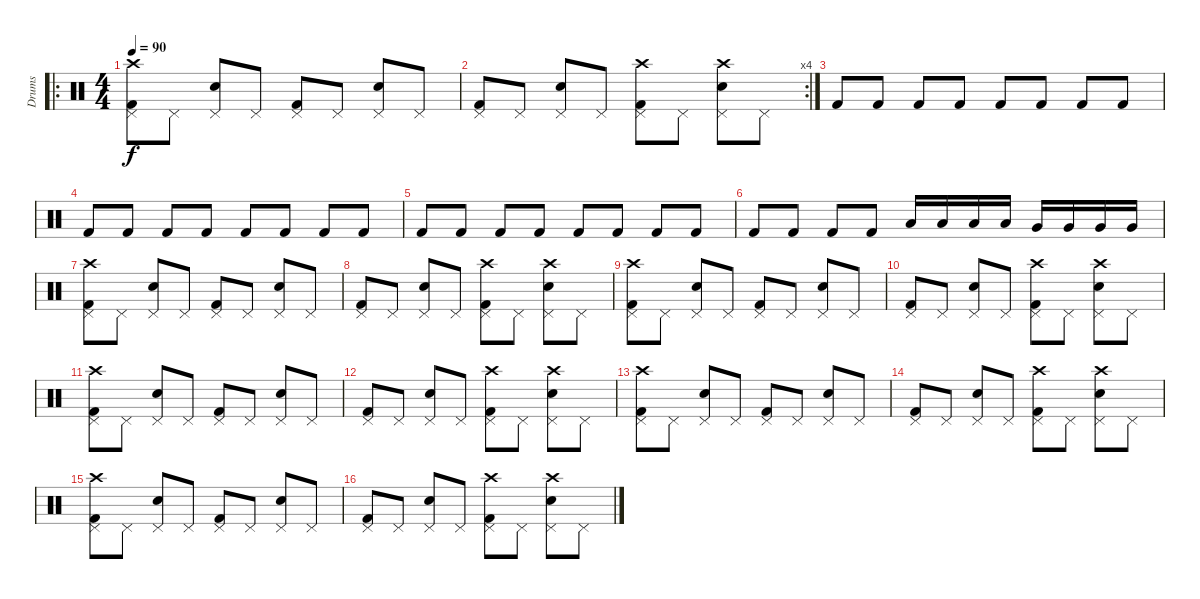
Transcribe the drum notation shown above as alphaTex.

\track ("Drums" "Drums") {instrument percussion}
\staff {score}
\articulation defaults
\ro
\ts (4 4)
\tempo 90
\clef neutral
\ks c
("Crash high (hit)" "Kick (hit) 2" "Pedal Hi-Hat (hit)").8{dy f} "Pedal Hi-Hat (hit)".8 ("Pedal Hi-Hat (hit)" "Snare (hit) 2").8 "Pedal Hi-Hat (hit)".8 ("Pedal Hi-Hat (hit)" "Kick (hit) 2").8 "Pedal Hi-Hat (hit)".8 ("Pedal Hi-Hat (hit)" "Snare (hit) 2").8 "Pedal Hi-Hat (hit)".8 |
\rc 4
("Pedal Hi-Hat (hit)" "Kick (hit) 2").8 "Pedal Hi-Hat (hit)".8 ("Pedal Hi-Hat (hit)" "Snare (hit) 2").8 "Pedal Hi-Hat (hit)".8 ("Pedal Hi-Hat (hit)" "Kick (hit) 2" "Crash high (hit)").8 "Pedal Hi-Hat (hit)".8 ("Pedal Hi-Hat (hit)" "Snare (hit) 2" "Crash high (hit)").8 "Pedal Hi-Hat (hit)".8 |
"Kick (hit) 2".8 "Kick (hit) 2".8 "Kick (hit) 2".8 "Kick (hit) 2".8 "Kick (hit) 2".8 "Kick (hit) 2".8 "Kick (hit) 2".8 "Kick (hit) 2".8 |
"Kick (hit) 2".8 "Kick (hit) 2".8 "Kick (hit) 2".8 "Kick (hit) 2".8 "Kick (hit) 2".8 "Kick (hit) 2".8 "Kick (hit) 2".8 "Kick (hit) 2".8 |
"Kick (hit) 2".8 "Kick (hit) 2".8 "Kick (hit) 2".8 "Kick (hit) 2".8 "Kick (hit) 2".8 "Kick (hit) 2".8 "Kick (hit) 2".8 "Kick (hit) 2".8 |
"Kick (hit) 2".8 "Kick (hit) 2".8 "Kick (hit) 2".8 "Kick (hit) 2".8 "Low Tom (hit)".16 "Low Tom (hit)".16 "Low Tom (hit)".16 "Low Tom (hit)".16 "Very Low Tom (hit)".16 "Very Low Tom (hit)".16 "Very Low Tom (hit)".16 "Very Low Tom (hit)".16 |
("Crash high (hit)" "Kick (hit) 2" "Pedal Hi-Hat (hit)").8 "Pedal Hi-Hat (hit)".8 ("Pedal Hi-Hat (hit)" "Snare (hit) 2").8 "Pedal Hi-Hat (hit)".8 ("Pedal Hi-Hat (hit)" "Kick (hit) 2").8 "Pedal Hi-Hat (hit)".8 ("Pedal Hi-Hat (hit)" "Snare (hit) 2").8 "Pedal Hi-Hat (hit)".8 |
("Pedal Hi-Hat (hit)" "Kick (hit) 2").8 "Pedal Hi-Hat (hit)".8 ("Pedal Hi-Hat (hit)" "Snare (hit) 2").8 "Pedal Hi-Hat (hit)".8 ("Pedal Hi-Hat (hit)" "Kick (hit) 2" "Crash high (hit)").8 "Pedal Hi-Hat (hit)".8 ("Pedal Hi-Hat (hit)" "Snare (hit) 2" "Crash high (hit)").8 "Pedal Hi-Hat (hit)".8 |
("Crash high (hit)" "Kick (hit) 2" "Pedal Hi-Hat (hit)").8 "Pedal Hi-Hat (hit)".8 ("Pedal Hi-Hat (hit)" "Snare (hit) 2").8 "Pedal Hi-Hat (hit)".8 ("Pedal Hi-Hat (hit)" "Kick (hit) 2").8 "Pedal Hi-Hat (hit)".8 ("Pedal Hi-Hat (hit)" "Snare (hit) 2").8 "Pedal Hi-Hat (hit)".8 |
("Pedal Hi-Hat (hit)" "Kick (hit) 2").8 "Pedal Hi-Hat (hit)".8 ("Pedal Hi-Hat (hit)" "Snare (hit) 2").8 "Pedal Hi-Hat (hit)".8 ("Pedal Hi-Hat (hit)" "Kick (hit) 2" "Crash high (hit)").8 "Pedal Hi-Hat (hit)".8 ("Pedal Hi-Hat (hit)" "Snare (hit) 2" "Crash high (hit)").8 "Pedal Hi-Hat (hit)".8 |
("Crash high (hit)" "Kick (hit) 2" "Pedal Hi-Hat (hit)").8 "Pedal Hi-Hat (hit)".8 ("Pedal Hi-Hat (hit)" "Snare (hit) 2").8 "Pedal Hi-Hat (hit)".8 ("Pedal Hi-Hat (hit)" "Kick (hit) 2").8 "Pedal Hi-Hat (hit)".8 ("Pedal Hi-Hat (hit)" "Snare (hit) 2").8 "Pedal Hi-Hat (hit)".8 |
("Pedal Hi-Hat (hit)" "Kick (hit) 2").8 "Pedal Hi-Hat (hit)".8 ("Pedal Hi-Hat (hit)" "Snare (hit) 2").8 "Pedal Hi-Hat (hit)".8 ("Pedal Hi-Hat (hit)" "Kick (hit) 2" "Crash high (hit)").8 "Pedal Hi-Hat (hit)".8 ("Pedal Hi-Hat (hit)" "Snare (hit) 2" "Crash high (hit)").8 "Pedal Hi-Hat (hit)".8 |
("Crash high (hit)" "Kick (hit) 2" "Pedal Hi-Hat (hit)").8 "Pedal Hi-Hat (hit)".8 ("Pedal Hi-Hat (hit)" "Snare (hit) 2").8 "Pedal Hi-Hat (hit)".8 ("Pedal Hi-Hat (hit)" "Kick (hit) 2").8 "Pedal Hi-Hat (hit)".8 ("Pedal Hi-Hat (hit)" "Snare (hit) 2").8 "Pedal Hi-Hat (hit)".8 |
("Pedal Hi-Hat (hit)" "Kick (hit) 2").8 "Pedal Hi-Hat (hit)".8 ("Pedal Hi-Hat (hit)" "Snare (hit) 2").8 "Pedal Hi-Hat (hit)".8 ("Pedal Hi-Hat (hit)" "Kick (hit) 2" "Crash high (hit)").8 "Pedal Hi-Hat (hit)".8 ("Pedal Hi-Hat (hit)" "Snare (hit) 2" "Crash high (hit)").8 "Pedal Hi-Hat (hit)".8 |
("Crash high (hit)" "Kick (hit) 2" "Pedal Hi-Hat (hit)").8 "Pedal Hi-Hat (hit)".8 ("Pedal Hi-Hat (hit)" "Snare (hit) 2").8 "Pedal Hi-Hat (hit)".8 ("Pedal Hi-Hat (hit)" "Kick (hit) 2").8 "Pedal Hi-Hat (hit)".8 ("Pedal Hi-Hat (hit)" "Snare (hit) 2").8 "Pedal Hi-Hat (hit)".8 |
("Pedal Hi-Hat (hit)" "Kick (hit) 2").8 "Pedal Hi-Hat (hit)".8 ("Pedal Hi-Hat (hit)" "Snare (hit) 2").8 "Pedal Hi-Hat (hit)".8 ("Pedal Hi-Hat (hit)" "Kick (hit) 2" "Crash high (hit)").8 "Pedal Hi-Hat (hit)".8 ("Pedal Hi-Hat (hit)" "Snare (hit) 2" "Crash high (hit)").8 "Pedal Hi-Hat (hit)".8
